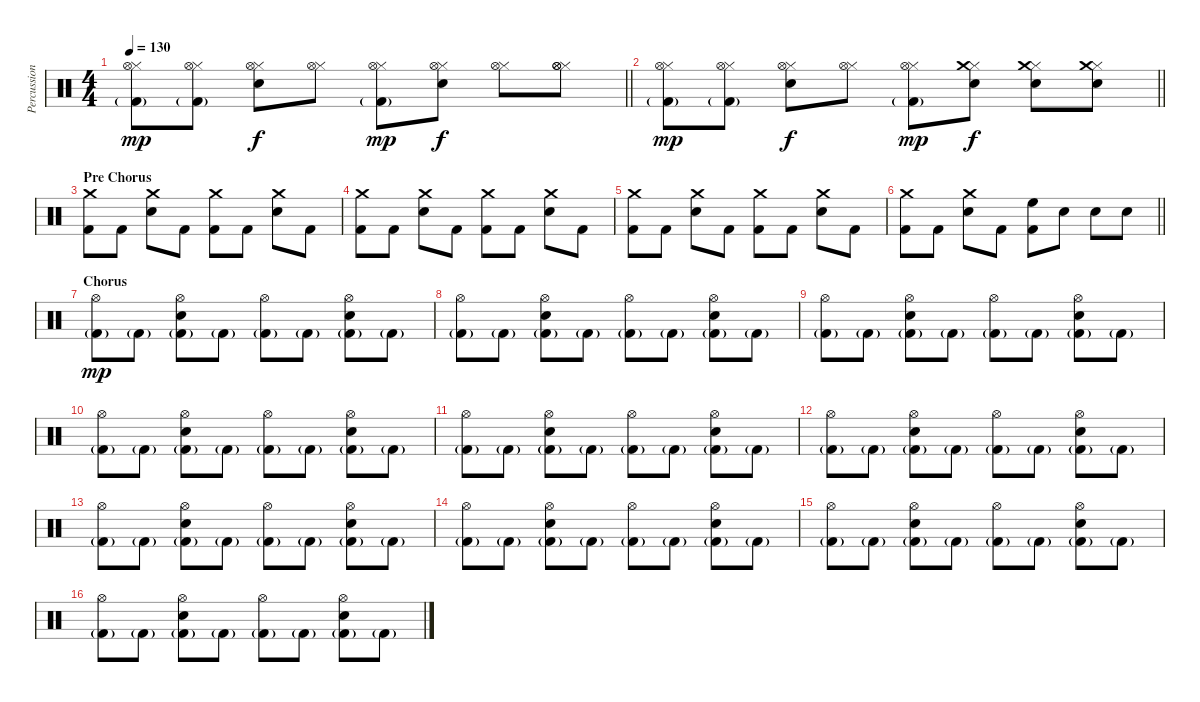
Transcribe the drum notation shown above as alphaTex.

\track ("Percussions" "Percussion") {instrument percussion}
\staff {score}
\articulation defaults
\ts (4 4)
\tempo 130
\clef neutral
\barLineRight lightlight
\ks c
("Hi-Hat (closed)" "Hi-Hat (open)" "Kick (hit) 2"{g}).8{dy mp} ("Hi-Hat (closed)" "Hi-Hat (open)" "Kick (hit) 2"{g}).8 ("Hi-Hat (closed)" "Hi-Hat (open)" "Electric Snare (hit)").8{dy f} ("Hi-Hat (closed)" "Hi-Hat (open)").8 ("Hi-Hat (closed)" "Hi-Hat (open)" "Kick (hit) 2"{g}).8{dy mp} ("Hi-Hat (closed)" "Hi-Hat (open)" "Electric Snare (hit)").8{dy f} ("Hi-Hat (closed)" "Hi-Hat (open)").8 ("Hi-Hat (closed)" "Hi-Hat (open)" "Hi-Hat (open)").8 |
\barLineRight lightlight
("Hi-Hat (closed)" "Hi-Hat (open)" "Kick (hit) 2"{g}).8{dy mp} ("Hi-Hat (closed)" "Hi-Hat (open)" "Kick (hit) 2"{g}).8 ("Hi-Hat (closed)" "Hi-Hat (open)" "Electric Snare (hit)").8{dy f} ("Hi-Hat (closed)" "Hi-Hat (open)").8 ("Hi-Hat (closed)" "Hi-Hat (open)" "Kick (hit) 2"{g}).8{dy mp} ("Hi-Hat (closed)" "Crash medium (hit)" "Electric Snare (hit)").8{dy f} ("Hi-Hat (closed)" "Crash medium (hit)" "Electric Snare (hit)").8 ("Hi-Hat (closed)" "Crash medium (hit)" "Electric Snare (hit)").8 |
\section ("" "Pre Chorus")
("Crash medium (hit)" "Kick (hit) 2").8 "Kick (hit) 2".8 ("Crash medium (hit)" "Electric Snare (hit)").8 "Kick (hit) 2".8 ("Crash medium (hit)" "Kick (hit) 2").8 "Kick (hit) 2".8 ("Crash medium (hit)" "Electric Snare (hit)").8 "Kick (hit) 2".8 |
("Crash medium (hit)" "Kick (hit) 2").8 "Kick (hit) 2".8 ("Crash medium (hit)" "Electric Snare (hit)").8 "Kick (hit) 2".8 ("Crash medium (hit)" "Kick (hit) 2").8 "Kick (hit) 2".8 ("Crash medium (hit)" "Electric Snare (hit)").8 "Kick (hit) 2".8 |
("Crash medium (hit)" "Kick (hit) 2").8 "Kick (hit) 2".8 ("Crash medium (hit)" "Electric Snare (hit)").8 "Kick (hit) 2".8 ("Crash medium (hit)" "Kick (hit) 2").8 "Kick (hit) 2".8 ("Crash medium (hit)" "Electric Snare (hit)").8 "Kick (hit) 2".8 |
\barLineRight lightlight
("Crash medium (hit)" "Kick (hit) 2").8 "Kick (hit) 2".8 ("Crash medium (hit)" "Electric Snare (hit)").8 "Kick (hit) 2".8 ("High Floor Tom (hit)" "Kick (hit) 2").8 "Electric Snare (hit)".8 "Electric Snare (hit)".8 "Electric Snare (hit)".8 |
\section ("" "Chorus")
("Hi-Hat (open)" "Kick (hit) 2"{g}).8{dy mp} "Kick (hit) 2"{g}.8 ("Hi-Hat (open)" "Electric Snare (hit)" "Kick (hit) 2"{g}).8 "Kick (hit) 2"{g}.8 ("Hi-Hat (open)" "Kick (hit) 2"{g}).8 "Kick (hit) 2"{g}.8 ("Hi-Hat (open)" "Electric Snare (hit)" "Kick (hit) 2"{g}).8 "Kick (hit) 2"{g}.8 |
("Hi-Hat (open)" "Kick (hit) 2"{g}).8 "Kick (hit) 2"{g}.8 ("Hi-Hat (open)" "Electric Snare (hit)" "Kick (hit) 2"{g}).8 "Kick (hit) 2"{g}.8 ("Hi-Hat (open)" "Kick (hit) 2"{g}).8 "Kick (hit) 2"{g}.8 ("Hi-Hat (open)" "Electric Snare (hit)" "Kick (hit) 2"{g}).8 "Kick (hit) 2"{g}.8 |
("Hi-Hat (open)" "Kick (hit) 2"{g}).8 "Kick (hit) 2"{g}.8 ("Hi-Hat (open)" "Electric Snare (hit)" "Kick (hit) 2"{g}).8 "Kick (hit) 2"{g}.8 ("Hi-Hat (open)" "Kick (hit) 2"{g}).8 "Kick (hit) 2"{g}.8 ("Hi-Hat (open)" "Electric Snare (hit)" "Kick (hit) 2"{g}).8 "Kick (hit) 2"{g}.8 |
("Hi-Hat (open)" "Kick (hit) 2"{g}).8 "Kick (hit) 2"{g}.8 ("Hi-Hat (open)" "Electric Snare (hit)" "Kick (hit) 2"{g}).8 "Kick (hit) 2"{g}.8 ("Hi-Hat (open)" "Kick (hit) 2"{g}).8 "Kick (hit) 2"{g}.8 ("Hi-Hat (open)" "Electric Snare (hit)" "Kick (hit) 2"{g}).8 "Kick (hit) 2"{g}.8 |
("Hi-Hat (open)" "Kick (hit) 2"{g}).8 "Kick (hit) 2"{g}.8 ("Hi-Hat (open)" "Electric Snare (hit)" "Kick (hit) 2"{g}).8 "Kick (hit) 2"{g}.8 ("Hi-Hat (open)" "Kick (hit) 2"{g}).8 "Kick (hit) 2"{g}.8 ("Hi-Hat (open)" "Electric Snare (hit)" "Kick (hit) 2"{g}).8 "Kick (hit) 2"{g}.8 |
("Hi-Hat (open)" "Kick (hit) 2"{g}).8 "Kick (hit) 2"{g}.8 ("Hi-Hat (open)" "Electric Snare (hit)" "Kick (hit) 2"{g}).8 "Kick (hit) 2"{g}.8 ("Hi-Hat (open)" "Kick (hit) 2"{g}).8 "Kick (hit) 2"{g}.8 ("Hi-Hat (open)" "Electric Snare (hit)" "Kick (hit) 2"{g}).8 "Kick (hit) 2"{g}.8 |
("Hi-Hat (open)" "Kick (hit) 2"{g}).8 "Kick (hit) 2"{g}.8 ("Hi-Hat (open)" "Electric Snare (hit)" "Kick (hit) 2"{g}).8 "Kick (hit) 2"{g}.8 ("Hi-Hat (open)" "Kick (hit) 2"{g}).8 "Kick (hit) 2"{g}.8 ("Hi-Hat (open)" "Electric Snare (hit)" "Kick (hit) 2"{g}).8 "Kick (hit) 2"{g}.8 |
("Hi-Hat (open)" "Kick (hit) 2"{g}).8 "Kick (hit) 2"{g}.8 ("Hi-Hat (open)" "Electric Snare (hit)" "Kick (hit) 2"{g}).8 "Kick (hit) 2"{g}.8 ("Hi-Hat (open)" "Kick (hit) 2"{g}).8 "Kick (hit) 2"{g}.8 ("Hi-Hat (open)" "Electric Snare (hit)" "Kick (hit) 2"{g}).8 "Kick (hit) 2"{g}.8 |
("Hi-Hat (open)" "Kick (hit) 2"{g}).8 "Kick (hit) 2"{g}.8 ("Hi-Hat (open)" "Electric Snare (hit)" "Kick (hit) 2"{g}).8 "Kick (hit) 2"{g}.8 ("Hi-Hat (open)" "Kick (hit) 2"{g}).8 "Kick (hit) 2"{g}.8 ("Hi-Hat (open)" "Electric Snare (hit)" "Kick (hit) 2"{g}).8 "Kick (hit) 2"{g}.8 |
("Hi-Hat (open)" "Kick (hit) 2"{g}).8 "Kick (hit) 2"{g}.8 ("Hi-Hat (open)" "Electric Snare (hit)" "Kick (hit) 2"{g}).8 "Kick (hit) 2"{g}.8 ("Hi-Hat (open)" "Kick (hit) 2"{g}).8 "Kick (hit) 2"{g}.8 ("Hi-Hat (open)" "Electric Snare (hit)" "Kick (hit) 2"{g}).8 "Kick (hit) 2"{g}.8
